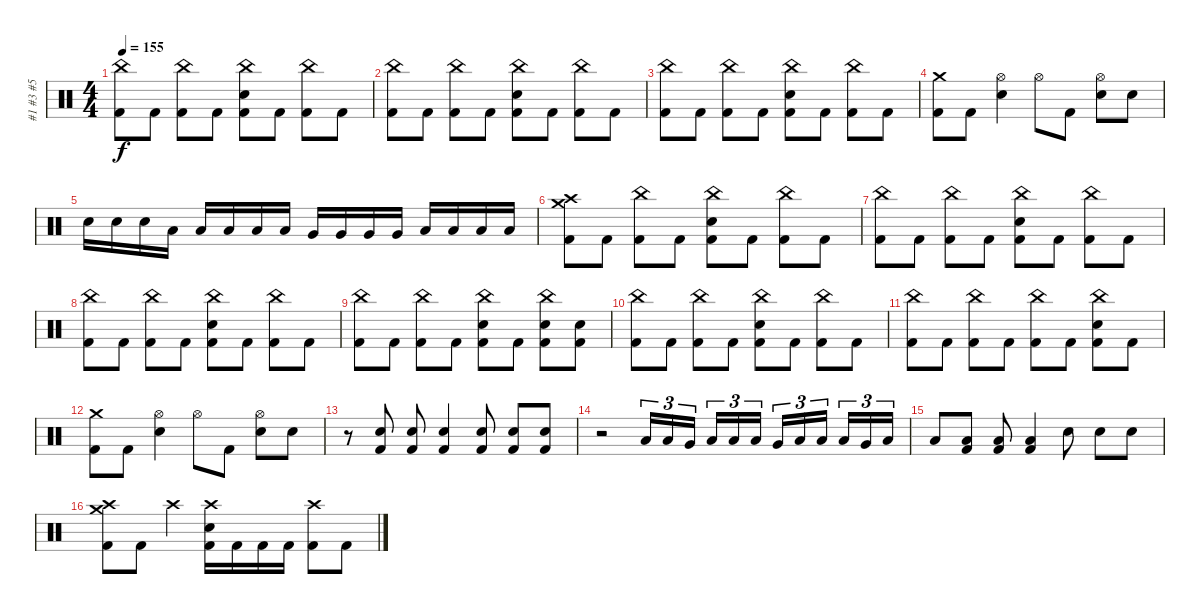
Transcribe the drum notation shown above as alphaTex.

\track ("#1 #3 #5" "#1 #3 #5") {instrument percussion}
\staff {score}
\articulation defaults
\ts (4 4)
\tempo 155
\clef neutral
\ks c
("China (hit)" "Kick (hit) 2").8{dy f} "Kick (hit) 2".8 ("China (hit)" "Kick (hit) 2").8 "Kick (hit) 2".8 ("China (hit)" "Electric Snare (hit)" "Kick (hit) 2").8 "Kick (hit) 2".8 ("China (hit)" "Kick (hit) 2").8 "Kick (hit) 2".8 |
("China (hit)" "Kick (hit) 2").8 "Kick (hit) 2".8 ("China (hit)" "Kick (hit) 2").8 "Kick (hit) 2".8 ("China (hit)" "Electric Snare (hit)" "Kick (hit) 2").8 "Kick (hit) 2".8 ("China (hit)" "Kick (hit) 2").8 "Kick (hit) 2".8 |
("China (hit)" "Kick (hit) 2").8 "Kick (hit) 2".8 ("China (hit)" "Kick (hit) 2").8 "Kick (hit) 2".8 ("China (hit)" "Electric Snare (hit)" "Kick (hit) 2").8 "Kick (hit) 2".8 ("China (hit)" "Kick (hit) 2").8 "Kick (hit) 2".8 |
("Crash medium (hit)" "Kick (hit) 2").8 "Kick (hit) 2".8 ("Hi-Hat (open)" "Electric Snare (hit)").4 "Hi-Hat (open)".8 "Kick (hit) 2".8 ("Hi-Hat (open)" "Electric Snare (hit)").8 "Electric Snare (hit)".8 |
"Electric Snare (hit)".16 "Electric Snare (hit)".16 "Electric Snare (hit)".16 "Low Tom (hit)".16 "Low Tom (hit)".16 "Low Tom (hit)".16 "Low Tom (hit)".16 "Low Tom (hit)".16 "Very Low Tom (hit)".16 "Very Low Tom (hit)".16 "Very Low Tom (hit)".16 "Very Low Tom (hit)".16 "Low Tom (hit)".16 "Low Tom (hit)".16 "Low Tom (hit)".16 "Low Tom (hit)".16 |
("Crash high (hit)" "Crash medium (hit)" "Kick (hit) 2").8 "Kick (hit) 2".8 ("China (hit)" "Kick (hit) 2").8 "Kick (hit) 2".8 ("China (hit)" "Electric Snare (hit)" "Kick (hit) 2").8 "Kick (hit) 2".8 ("China (hit)" "Kick (hit) 2").8 "Kick (hit) 2".8 |
("China (hit)" "Kick (hit) 2").8 "Kick (hit) 2".8 ("China (hit)" "Kick (hit) 2").8 "Kick (hit) 2".8 ("China (hit)" "Electric Snare (hit)" "Kick (hit) 2").8 "Kick (hit) 2".8 ("China (hit)" "Kick (hit) 2").8 "Kick (hit) 2".8 |
("China (hit)" "Kick (hit) 2").8 "Kick (hit) 2".8 ("China (hit)" "Kick (hit) 2").8 "Kick (hit) 2".8 ("China (hit)" "Electric Snare (hit)" "Kick (hit) 2").8 "Kick (hit) 2".8 ("China (hit)" "Kick (hit) 2").8 "Kick (hit) 2".8 |
("China (hit)" "Kick (hit) 2").8 "Kick (hit) 2".8 ("China (hit)" "Kick (hit) 2").8 "Kick (hit) 2".8 ("China (hit)" "Electric Snare (hit)" "Kick (hit) 2").8 "Kick (hit) 2".8 ("China (hit)" "Electric Snare (hit)" "Kick (hit) 2").8 ("Electric Snare (hit)" "Kick (hit) 2").8 |
("China (hit)" "Kick (hit) 2").8 "Kick (hit) 2".8 ("China (hit)" "Kick (hit) 2").8 "Kick (hit) 2".8 ("China (hit)" "Electric Snare (hit)" "Kick (hit) 2").8 "Kick (hit) 2".8 ("China (hit)" "Kick (hit) 2").8 "Kick (hit) 2".8 |
("China (hit)" "Kick (hit) 2").8 "Kick (hit) 2".8 ("China (hit)" "Kick (hit) 2").8 "Kick (hit) 2".8 ("China (hit)" "Kick (hit) 2").8 "Kick (hit) 2".8 ("China (hit)" "Electric Snare (hit)" "Kick (hit) 2").8 "Kick (hit) 2".8 |
("Crash medium (hit)" "Kick (hit) 2").8 "Kick (hit) 2".8 ("Hi-Hat (open)" "Electric Snare (hit)").4 "Hi-Hat (open)".8 "Kick (hit) 2".8 ("Hi-Hat (open)" "Electric Snare (hit)").8 "Electric Snare (hit)".8 |
r.8 ("Electric Snare (hit)" "Kick (hit) 2").8 ("Electric Snare (hit)" "Kick (hit) 2").8 ("Electric Snare (hit)" "Kick (hit) 2").4 ("Electric Snare (hit)" "Kick (hit) 2").8 ("Electric Snare (hit)" "Kick (hit) 2").8 ("Electric Snare (hit)" "Kick (hit) 2").8 |
r.2 "Low Tom (hit)".16{tu (3 2)} "Low Tom (hit)".16{tu (3 2)} "Very Low Tom (hit)".16{tu (3 2)} "Low Floor Tom (hit)".16{tu (3 2)} "Low Tom (hit)".16{tu (3 2)} "Low Tom (hit)".16{tu (3 2)} "Very Low Tom (hit)".16{tu (3 2)} "Low Floor Tom (hit)".16{tu (3 2)} "Low Tom (hit)".16{tu (3 2)} "Low Tom (hit)".16{tu (3 2)} "Very Low Tom (hit)".16{tu (3 2)} "Low Floor Tom (hit)".16{tu (3 2)} |
"Low Tom (hit)".8 ("Low Floor Tom (hit)" "Kick (hit) 2").8 ("Low Floor Tom (hit)" "Kick (hit) 2").8 ("Low Floor Tom (hit)" "Kick (hit) 2").4 "Electric Snare (hit)".8 "Electric Snare (hit)".8 "Electric Snare (hit)".8 |
\section ("" " ")
("Crash medium (hit)" "Crash high (hit)" "Kick (hit) 2").8 "Kick (hit) 2".8 "Crash high (hit)".4 ("Crash high (hit)" "Electric Snare (hit)" "Kick (hit) 2").16 "Kick (hit) 2".16 "Kick (hit) 2".16 "Kick (hit) 2".16 ("Crash high (hit)" "Kick (hit) 2").8 "Kick (hit) 2".8
